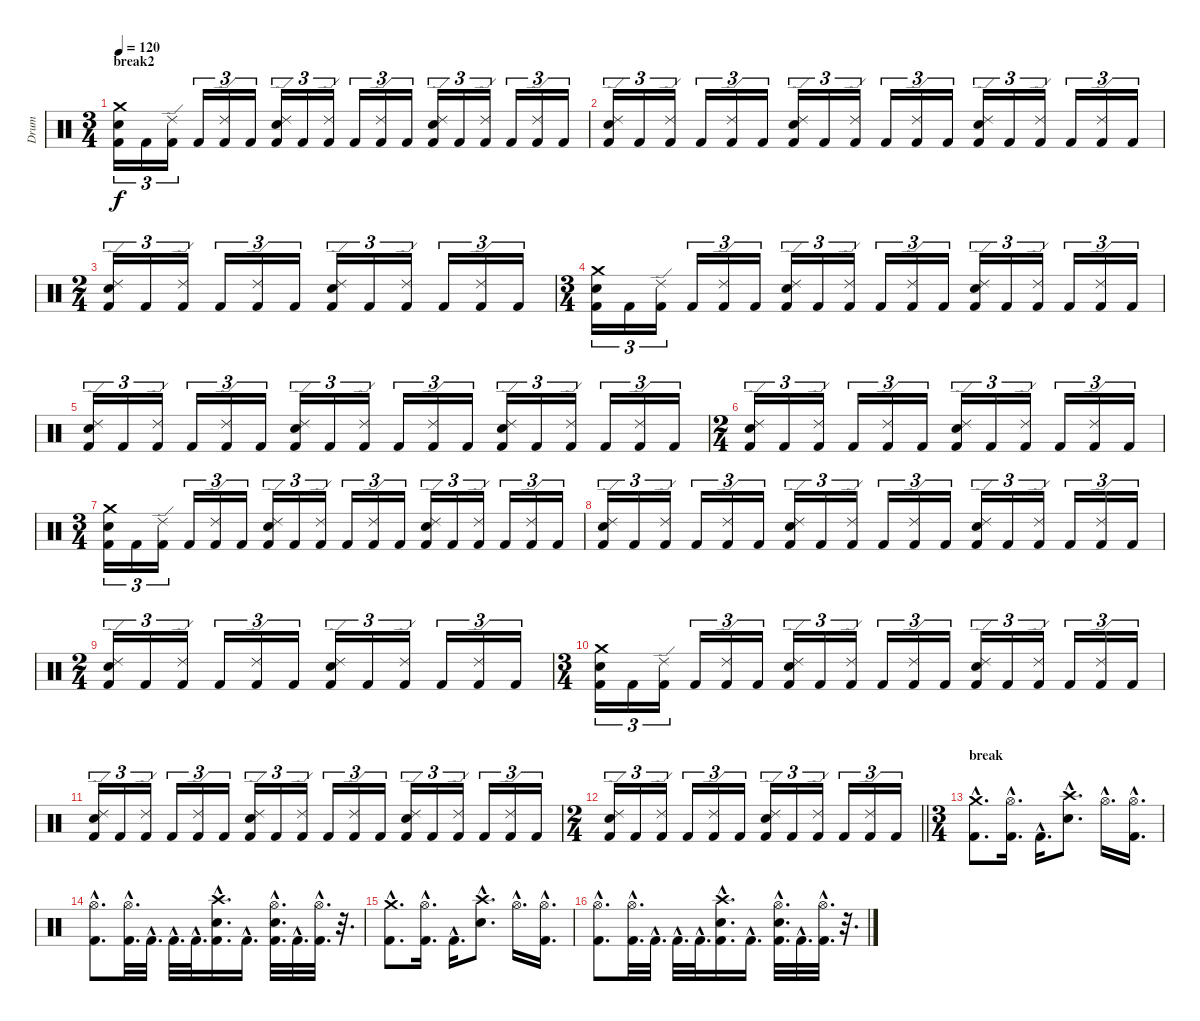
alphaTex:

\track ("Drum" "Drum") {instrument percussion}
\staff {score}
\articulation defaults
\ts (3 4)
\section ("" "break2")
\tempo 120
\clef neutral
\ks c
("Crash medium (hit)" "Snare (hit) 2" "Kick (hit) 2").16{tu (3 2) dy f} "Kick (hit) 2".16{tu (3 2)} ("Ride (edge) 2" "Kick (hit) 2").16{tu (3 2)} "Kick (hit) 2".16{tu (3 2)} ("Ride (edge) 2" "Kick (hit) 2").16{tu (3 2)} "Kick (hit) 2".16{tu (3 2)} ("Ride (edge) 2" "Snare (hit) 2" "Kick (hit) 2").16{tu (3 2)} "Kick (hit) 2".16{tu (3 2)} ("Ride (edge) 2" "Kick (hit) 2").16{tu (3 2)} "Kick (hit) 2".16{tu (3 2)} ("Ride (edge) 2" "Kick (hit) 2").16{tu (3 2)} "Kick (hit) 2".16{tu (3 2)} ("Ride (edge) 2" "Snare (hit) 2" "Kick (hit) 2").16{tu (3 2)} "Kick (hit) 2".16{tu (3 2)} ("Ride (edge) 2" "Kick (hit) 2").16{tu (3 2)} "Kick (hit) 2".16{tu (3 2)} ("Ride (edge) 2" "Kick (hit) 2").16{tu (3 2)} "Kick (hit) 2".16{tu (3 2)} |
("Ride (edge) 2" "Snare (hit) 2" "Kick (hit) 2").16{tu (3 2)} "Kick (hit) 2".16{tu (3 2)} ("Ride (edge) 2" "Kick (hit) 2").16{tu (3 2)} "Kick (hit) 2".16{tu (3 2)} ("Ride (edge) 2" "Kick (hit) 2").16{tu (3 2)} "Kick (hit) 2".16{tu (3 2)} ("Ride (edge) 2" "Snare (hit) 2" "Kick (hit) 2").16{tu (3 2)} "Kick (hit) 2".16{tu (3 2)} ("Ride (edge) 2" "Kick (hit) 2").16{tu (3 2)} "Kick (hit) 2".16{tu (3 2)} ("Ride (edge) 2" "Kick (hit) 2").16{tu (3 2)} "Kick (hit) 2".16{tu (3 2)} ("Ride (edge) 2" "Snare (hit) 2" "Kick (hit) 2").16{tu (3 2)} "Kick (hit) 2".16{tu (3 2)} ("Ride (edge) 2" "Kick (hit) 2").16{tu (3 2)} "Kick (hit) 2".16{tu (3 2)} ("Ride (edge) 2" "Kick (hit) 2").16{tu (3 2)} "Kick (hit) 2".16{tu (3 2)} |
\ts (2 4)
("Ride (edge) 2" "Snare (hit) 2" "Kick (hit) 2").16{tu (3 2)} "Kick (hit) 2".16{tu (3 2)} ("Ride (edge) 2" "Kick (hit) 2").16{tu (3 2)} "Kick (hit) 2".16{tu (3 2)} ("Ride (edge) 2" "Kick (hit) 2").16{tu (3 2)} "Kick (hit) 2".16{tu (3 2)} ("Ride (edge) 2" "Snare (hit) 2" "Kick (hit) 2").16{tu (3 2)} "Kick (hit) 2".16{tu (3 2)} ("Ride (edge) 2" "Kick (hit) 2").16{tu (3 2)} "Kick (hit) 2".16{tu (3 2)} ("Ride (edge) 2" "Kick (hit) 2").16{tu (3 2)} "Kick (hit) 2".16{tu (3 2)} |
\ts (3 4)
("Crash medium (hit)" "Snare (hit) 2" "Kick (hit) 2").16{tu (3 2)} "Kick (hit) 2".16{tu (3 2)} ("Ride (edge) 2" "Kick (hit) 2").16{tu (3 2)} "Kick (hit) 2".16{tu (3 2)} ("Ride (edge) 2" "Kick (hit) 2").16{tu (3 2)} "Kick (hit) 2".16{tu (3 2)} ("Ride (edge) 2" "Snare (hit) 2" "Kick (hit) 2").16{tu (3 2)} "Kick (hit) 2".16{tu (3 2)} ("Ride (edge) 2" "Kick (hit) 2").16{tu (3 2)} "Kick (hit) 2".16{tu (3 2)} ("Ride (edge) 2" "Kick (hit) 2").16{tu (3 2)} "Kick (hit) 2".16{tu (3 2)} ("Ride (edge) 2" "Snare (hit) 2" "Kick (hit) 2").16{tu (3 2)} "Kick (hit) 2".16{tu (3 2)} ("Ride (edge) 2" "Kick (hit) 2").16{tu (3 2)} "Kick (hit) 2".16{tu (3 2)} ("Ride (edge) 2" "Kick (hit) 2").16{tu (3 2)} "Kick (hit) 2".16{tu (3 2)} |
("Ride (edge) 2" "Snare (hit) 2" "Kick (hit) 2").16{tu (3 2)} "Kick (hit) 2".16{tu (3 2)} ("Ride (edge) 2" "Kick (hit) 2").16{tu (3 2)} "Kick (hit) 2".16{tu (3 2)} ("Ride (edge) 2" "Kick (hit) 2").16{tu (3 2)} "Kick (hit) 2".16{tu (3 2)} ("Ride (edge) 2" "Snare (hit) 2" "Kick (hit) 2").16{tu (3 2)} "Kick (hit) 2".16{tu (3 2)} ("Ride (edge) 2" "Kick (hit) 2").16{tu (3 2)} "Kick (hit) 2".16{tu (3 2)} ("Ride (edge) 2" "Kick (hit) 2").16{tu (3 2)} "Kick (hit) 2".16{tu (3 2)} ("Ride (edge) 2" "Snare (hit) 2" "Kick (hit) 2").16{tu (3 2)} "Kick (hit) 2".16{tu (3 2)} ("Ride (edge) 2" "Kick (hit) 2").16{tu (3 2)} "Kick (hit) 2".16{tu (3 2)} ("Ride (edge) 2" "Kick (hit) 2").16{tu (3 2)} "Kick (hit) 2".16{tu (3 2)} |
\ts (2 4)
("Ride (edge) 2" "Snare (hit) 2" "Kick (hit) 2").16{tu (3 2)} "Kick (hit) 2".16{tu (3 2)} ("Ride (edge) 2" "Kick (hit) 2").16{tu (3 2)} "Kick (hit) 2".16{tu (3 2)} ("Ride (edge) 2" "Kick (hit) 2").16{tu (3 2)} "Kick (hit) 2".16{tu (3 2)} ("Ride (edge) 2" "Snare (hit) 2" "Kick (hit) 2").16{tu (3 2)} "Kick (hit) 2".16{tu (3 2)} ("Ride (edge) 2" "Kick (hit) 2").16{tu (3 2)} "Kick (hit) 2".16{tu (3 2)} ("Ride (edge) 2" "Kick (hit) 2").16{tu (3 2)} "Kick (hit) 2".16{tu (3 2)} |
\ts (3 4)
("Crash medium (hit)" "Snare (hit) 2" "Kick (hit) 2").16{tu (3 2)} "Kick (hit) 2".16{tu (3 2)} ("Ride (edge) 2" "Kick (hit) 2").16{tu (3 2)} "Kick (hit) 2".16{tu (3 2)} ("Ride (edge) 2" "Kick (hit) 2").16{tu (3 2)} "Kick (hit) 2".16{tu (3 2)} ("Ride (edge) 2" "Snare (hit) 2" "Kick (hit) 2").16{tu (3 2)} "Kick (hit) 2".16{tu (3 2)} ("Ride (edge) 2" "Kick (hit) 2").16{tu (3 2)} "Kick (hit) 2".16{tu (3 2)} ("Ride (edge) 2" "Kick (hit) 2").16{tu (3 2)} "Kick (hit) 2".16{tu (3 2)} ("Ride (edge) 2" "Snare (hit) 2" "Kick (hit) 2").16{tu (3 2)} "Kick (hit) 2".16{tu (3 2)} ("Ride (edge) 2" "Kick (hit) 2").16{tu (3 2)} "Kick (hit) 2".16{tu (3 2)} ("Ride (edge) 2" "Kick (hit) 2").16{tu (3 2)} "Kick (hit) 2".16{tu (3 2)} |
("Ride (edge) 2" "Snare (hit) 2" "Kick (hit) 2").16{tu (3 2)} "Kick (hit) 2".16{tu (3 2)} ("Ride (edge) 2" "Kick (hit) 2").16{tu (3 2)} "Kick (hit) 2".16{tu (3 2)} ("Ride (edge) 2" "Kick (hit) 2").16{tu (3 2)} "Kick (hit) 2".16{tu (3 2)} ("Ride (edge) 2" "Snare (hit) 2" "Kick (hit) 2").16{tu (3 2)} "Kick (hit) 2".16{tu (3 2)} ("Ride (edge) 2" "Kick (hit) 2").16{tu (3 2)} "Kick (hit) 2".16{tu (3 2)} ("Ride (edge) 2" "Kick (hit) 2").16{tu (3 2)} "Kick (hit) 2".16{tu (3 2)} ("Ride (edge) 2" "Snare (hit) 2" "Kick (hit) 2").16{tu (3 2)} "Kick (hit) 2".16{tu (3 2)} ("Ride (edge) 2" "Kick (hit) 2").16{tu (3 2)} "Kick (hit) 2".16{tu (3 2)} ("Ride (edge) 2" "Kick (hit) 2").16{tu (3 2)} "Kick (hit) 2".16{tu (3 2)} |
\ts (2 4)
("Ride (edge) 2" "Snare (hit) 2" "Kick (hit) 2").16{tu (3 2)} "Kick (hit) 2".16{tu (3 2)} ("Ride (edge) 2" "Kick (hit) 2").16{tu (3 2)} "Kick (hit) 2".16{tu (3 2)} ("Ride (edge) 2" "Kick (hit) 2").16{tu (3 2)} "Kick (hit) 2".16{tu (3 2)} ("Ride (edge) 2" "Snare (hit) 2" "Kick (hit) 2").16{tu (3 2)} "Kick (hit) 2".16{tu (3 2)} ("Ride (edge) 2" "Kick (hit) 2").16{tu (3 2)} "Kick (hit) 2".16{tu (3 2)} ("Ride (edge) 2" "Kick (hit) 2").16{tu (3 2)} "Kick (hit) 2".16{tu (3 2)} |
\ts (3 4)
("Crash medium (hit)" "Snare (hit) 2" "Kick (hit) 2").16{tu (3 2)} "Kick (hit) 2".16{tu (3 2)} ("Ride (edge) 2" "Kick (hit) 2").16{tu (3 2)} "Kick (hit) 2".16{tu (3 2)} ("Ride (edge) 2" "Kick (hit) 2").16{tu (3 2)} "Kick (hit) 2".16{tu (3 2)} ("Ride (edge) 2" "Snare (hit) 2" "Kick (hit) 2").16{tu (3 2)} "Kick (hit) 2".16{tu (3 2)} ("Ride (edge) 2" "Kick (hit) 2").16{tu (3 2)} "Kick (hit) 2".16{tu (3 2)} ("Ride (edge) 2" "Kick (hit) 2").16{tu (3 2)} "Kick (hit) 2".16{tu (3 2)} ("Ride (edge) 2" "Snare (hit) 2" "Kick (hit) 2").16{tu (3 2)} "Kick (hit) 2".16{tu (3 2)} ("Ride (edge) 2" "Kick (hit) 2").16{tu (3 2)} "Kick (hit) 2".16{tu (3 2)} ("Ride (edge) 2" "Kick (hit) 2").16{tu (3 2)} "Kick (hit) 2".16{tu (3 2)} |
("Ride (edge) 2" "Snare (hit) 2" "Kick (hit) 2").16{tu (3 2)} "Kick (hit) 2".16{tu (3 2)} ("Ride (edge) 2" "Kick (hit) 2").16{tu (3 2)} "Kick (hit) 2".16{tu (3 2)} ("Ride (edge) 2" "Kick (hit) 2").16{tu (3 2)} "Kick (hit) 2".16{tu (3 2)} ("Ride (edge) 2" "Snare (hit) 2" "Kick (hit) 2").16{tu (3 2)} "Kick (hit) 2".16{tu (3 2)} ("Ride (edge) 2" "Kick (hit) 2").16{tu (3 2)} "Kick (hit) 2".16{tu (3 2)} ("Ride (edge) 2" "Kick (hit) 2").16{tu (3 2)} "Kick (hit) 2".16{tu (3 2)} ("Ride (edge) 2" "Snare (hit) 2" "Kick (hit) 2").16{tu (3 2)} "Kick (hit) 2".16{tu (3 2)} ("Ride (edge) 2" "Kick (hit) 2").16{tu (3 2)} "Kick (hit) 2".16{tu (3 2)} ("Ride (edge) 2" "Kick (hit) 2").16{tu (3 2)} "Kick (hit) 2".16{tu (3 2)} |
\ts (2 4)
\barLineRight lightlight
("Ride (edge) 2" "Snare (hit) 2" "Kick (hit) 2").16{tu (3 2)} "Kick (hit) 2".16{tu (3 2)} ("Ride (edge) 2" "Kick (hit) 2").16{tu (3 2)} "Kick (hit) 2".16{tu (3 2)} ("Ride (edge) 2" "Kick (hit) 2").16{tu (3 2)} "Kick (hit) 2".16{tu (3 2)} ("Ride (edge) 2" "Snare (hit) 2" "Kick (hit) 2").16{tu (3 2)} "Kick (hit) 2".16{tu (3 2)} ("Ride (edge) 2" "Kick (hit) 2").16{tu (3 2)} "Kick (hit) 2".16{tu (3 2)} ("Ride (edge) 2" "Kick (hit) 2").16{tu (3 2)} "Kick (hit) 2".16{tu (3 2)} |
\ts (3 4)
\section ("" "break")
("Crash medium (hit)"{hac} "Kick (hit) 2"{hac}).8{d} ("Hi-Hat (open)"{hac} "Kick (hit) 2"{hac}).16{d} "Kick (hit) 2"{hac}.16{d} ("Crash high (hit)"{hac} "Snare (hit) 2"{hac}).8{d} "Hi-Hat (open)"{hac}.16{d} ("Hi-Hat (open)"{hac} "Kick (hit) 2"{hac}).16{d} |
("Hi-Hat (open)"{hac} "Kick (hit) 2"{hac}).8{d} ("Hi-Hat (open)"{hac} "Kick (hit) 2"{hac}).32{d} "Kick (hit) 2"{hac}.32{d} "Kick (hit) 2"{hac}.32{d} "Kick (hit) 2"{hac}.32{d} ("Crash high (hit)"{hac} "Snare (hit) 2"{hac} "Kick (hit) 2"{hac}).16{d} "Kick (hit) 2"{hac}.16{d} ("Hi-Hat (open)"{hac} "Snare (hit) 2"{hac} "Kick (hit) 2"{hac}).32{d} "Kick (hit) 2"{hac}.32{d} ("Hi-Hat (open)"{hac} "Kick (hit) 2"{hac}).32{d} r.32{d} |
("Crash medium (hit)"{hac} "Kick (hit) 2"{hac}).8{d} ("Hi-Hat (open)"{hac} "Kick (hit) 2"{hac}).16{d} "Kick (hit) 2"{hac}.16{d} ("Crash high (hit)"{hac} "Snare (hit) 2"{hac}).8{d} "Hi-Hat (open)"{hac}.16{d} ("Hi-Hat (open)"{hac} "Kick (hit) 2"{hac}).16{d} |
("Hi-Hat (open)"{hac} "Kick (hit) 2"{hac}).8{d} ("Hi-Hat (open)"{hac} "Kick (hit) 2"{hac}).32{d} "Kick (hit) 2"{hac}.32{d} "Kick (hit) 2"{hac}.32{d} "Kick (hit) 2"{hac}.32{d} ("Crash high (hit)"{hac} "Snare (hit) 2"{hac} "Kick (hit) 2"{hac}).16{d} "Kick (hit) 2"{hac}.16{d} ("Hi-Hat (open)"{hac} "Snare (hit) 2"{hac} "Kick (hit) 2"{hac}).32{d} "Kick (hit) 2"{hac}.32{d} ("Hi-Hat (open)"{hac} "Kick (hit) 2"{hac}).32{d} r.32{d}
